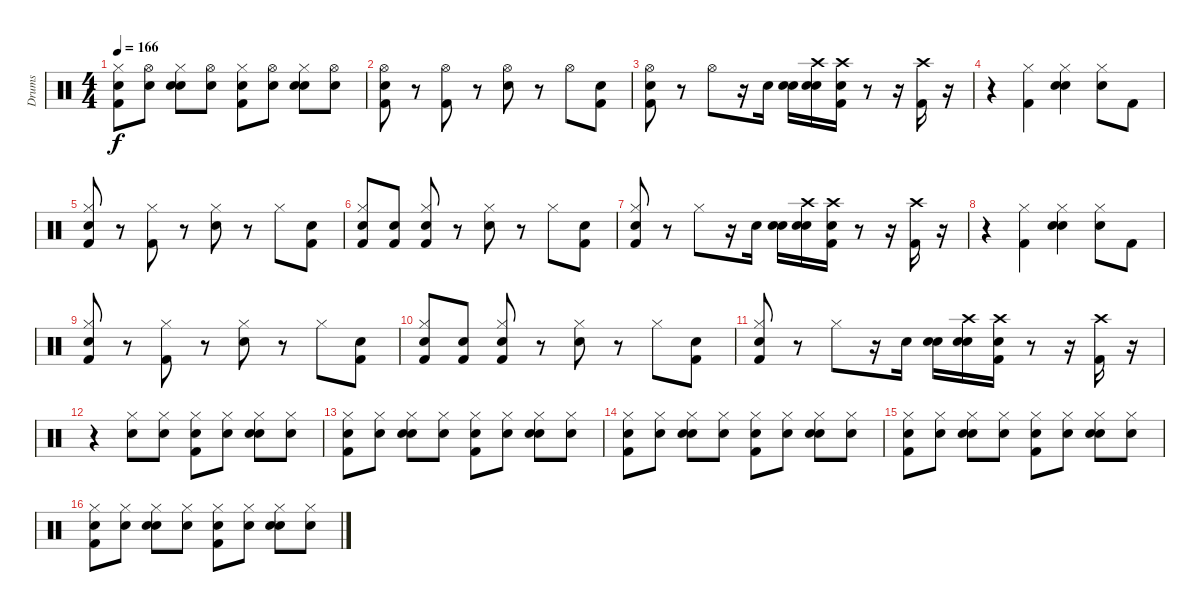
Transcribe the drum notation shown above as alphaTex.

\track ("Drums" "Drums") {instrument percussion}
\staff {score}
\articulation defaults
\ts (4 4)
\tempo 166
\clef neutral
\ks c
("Snare (hit)" "Hi-Hat (closed)" "Kick (hit) 2").8{dy f} ("Snare (hit)" "Hi-Hat (open)").8 ("Snare (hit)" "Hi-Hat (closed)" "Snare (hit) 2").8 ("Snare (hit)" "Hi-Hat (open)").8 ("Snare (hit)" "Hi-Hat (closed)" "Kick (hit) 2").8 ("Snare (hit)" "Hi-Hat (open)").8 ("Snare (hit)" "Hi-Hat (closed)" "Snare (hit) 2").8 ("Snare (hit)" "Hi-Hat (open)").8 |
("Snare (hit)" "Hi-Hat (open)" "Kick (hit) 2").8 r.8 ("Hi-Hat (open)" "Kick (hit) 2").8 r.8 ("Hi-Hat (open)" "Electric Snare (hit)").8 r.8 "Hi-Hat (open)".8 ("Snare (hit)" "Kick (hit) 2").8 |
("Snare (hit)" "Kick (hit) 2" "Hi-Hat (open)").8 r.8 "Hi-Hat (open)".8 r.16 "Electric Snare (hit)".16 ("Snare (hit)" "Electric Snare (hit)").16 ("Snare (hit)" "Crash high (hit)" "Electric Snare (hit)").16 ("Snare (hit)" "Crash high (hit)" "Kick (hit) 2").16 r.8 r.16 ("Kick (hit) 2" "Crash high (hit)").16 r.16 |
r.4 ("Hi-Hat (closed)" "Kick (hit) 2").4 ("Snare (hit)" "Hi-Hat (closed)" "Electric Snare (hit)").4 ("Snare (hit)" "Hi-Hat (closed)").8 "Kick (hit) 2".8 |
("Snare (hit)" "Hi-Hat (closed)" "Kick (hit) 2").8 r.8 ("Hi-Hat (closed)" "Kick (hit) 2").8 r.8 ("Hi-Hat (closed)" "Electric Snare (hit)").8 r.8 "Hi-Hat (closed)".8 ("Snare (hit)" "Kick (hit) 2").8 |
("Snare (hit)" "Hi-Hat (closed)" "Kick (hit) 2").8 ("Snare (hit)" "Kick (hit) 2").8 ("Snare (hit)" "Hi-Hat (closed)" "Kick (hit) 2").8 r.8 ("Hi-Hat (closed)" "Electric Snare (hit)").8 r.8 "Hi-Hat (closed)".8 ("Snare (hit)" "Kick (hit) 2").8 |
("Snare (hit)" "Hi-Hat (closed)" "Kick (hit) 2").8 r.8 "Hi-Hat (closed)".8 r.16 "Electric Snare (hit)".16 ("Snare (hit)" "Electric Snare (hit)").16 ("Snare (hit)" "Crash high (hit)" "Electric Snare (hit)").16 ("Snare (hit)" "Crash high (hit)" "Kick (hit) 2").16 r.8 r.16 ("Crash high (hit)" "Kick (hit) 2").16 r.16 |
r.4 ("Hi-Hat (closed)" "Kick (hit) 2").4 ("Snare (hit)" "Hi-Hat (closed)" "Electric Snare (hit)").4 ("Snare (hit)" "Hi-Hat (closed)").8 "Kick (hit) 2".8 |
("Snare (hit)" "Hi-Hat (closed)" "Kick (hit) 2").8 r.8 ("Hi-Hat (closed)" "Kick (hit) 2").8 r.8 ("Hi-Hat (closed)" "Electric Snare (hit)").8 r.8 "Hi-Hat (closed)".8 ("Snare (hit)" "Kick (hit) 2").8 |
("Snare (hit)" "Hi-Hat (closed)" "Kick (hit) 2").8 ("Snare (hit)" "Kick (hit) 2").8 ("Snare (hit)" "Hi-Hat (closed)" "Kick (hit) 2").8 r.8 ("Hi-Hat (closed)" "Electric Snare (hit)").8 r.8 "Hi-Hat (closed)".8 ("Snare (hit)" "Kick (hit) 2").8 |
("Snare (hit)" "Hi-Hat (closed)" "Kick (hit) 2").8 r.8 "Hi-Hat (closed)".8 r.16 "Electric Snare (hit)".16 ("Snare (hit)" "Electric Snare (hit)").16 ("Snare (hit)" "Crash high (hit)" "Electric Snare (hit)").16 ("Snare (hit)" "Crash high (hit)" "Kick (hit) 2").16 r.8 r.16 ("Kick (hit) 2" "Crash high (hit)").16 r.16 |
r.4 ("Hi-Hat (closed)" "Electric Snare (hit)").8 ("Snare (hit)" "Hi-Hat (closed)").8 ("Snare (hit)" "Hi-Hat (closed)" "Kick (hit) 2").8 ("Snare (hit)" "Hi-Hat (closed)").8 ("Snare (hit)" "Hi-Hat (closed)" "Electric Snare (hit)").8 ("Snare (hit)" "Hi-Hat (closed)").8 |
("Snare (hit)" "Hi-Hat (closed)" "Kick (hit) 2").8 ("Snare (hit)" "Hi-Hat (closed)").8 ("Snare (hit)" "Hi-Hat (closed)" "Electric Snare (hit)").8 ("Snare (hit)" "Hi-Hat (closed)").8 ("Snare (hit)" "Hi-Hat (closed)" "Kick (hit) 2").8 ("Snare (hit)" "Hi-Hat (closed)").8 ("Snare (hit)" "Hi-Hat (closed)" "Electric Snare (hit)").8 ("Snare (hit)" "Hi-Hat (closed)").8 |
("Snare (hit)" "Hi-Hat (closed)" "Kick (hit) 2").8 ("Snare (hit)" "Hi-Hat (closed)").8 ("Snare (hit)" "Hi-Hat (closed)" "Electric Snare (hit)").8 ("Snare (hit)" "Hi-Hat (closed)").8 ("Snare (hit)" "Hi-Hat (closed)" "Kick (hit) 2").8 ("Snare (hit)" "Hi-Hat (closed)").8 ("Snare (hit)" "Hi-Hat (closed)" "Electric Snare (hit)").8 ("Snare (hit)" "Hi-Hat (closed)").8 |
("Snare (hit)" "Hi-Hat (closed)" "Kick (hit) 2").8 ("Snare (hit)" "Hi-Hat (closed)").8 ("Snare (hit)" "Hi-Hat (closed)" "Electric Snare (hit)").8 ("Snare (hit)" "Hi-Hat (closed)").8 ("Snare (hit)" "Hi-Hat (closed)" "Kick (hit) 2").8 ("Snare (hit)" "Hi-Hat (closed)").8 ("Snare (hit)" "Hi-Hat (closed)" "Electric Snare (hit)").8 ("Snare (hit)" "Hi-Hat (closed)").8 |
("Snare (hit)" "Hi-Hat (closed)" "Kick (hit) 2").8 ("Snare (hit)" "Hi-Hat (closed)").8 ("Snare (hit)" "Hi-Hat (closed)" "Electric Snare (hit)").8 ("Snare (hit)" "Hi-Hat (closed)").8 ("Snare (hit)" "Hi-Hat (closed)" "Kick (hit) 2").8 ("Snare (hit)" "Hi-Hat (closed)").8 ("Snare (hit)" "Hi-Hat (closed)" "Electric Snare (hit)").8 ("Snare (hit)" "Hi-Hat (closed)").8
